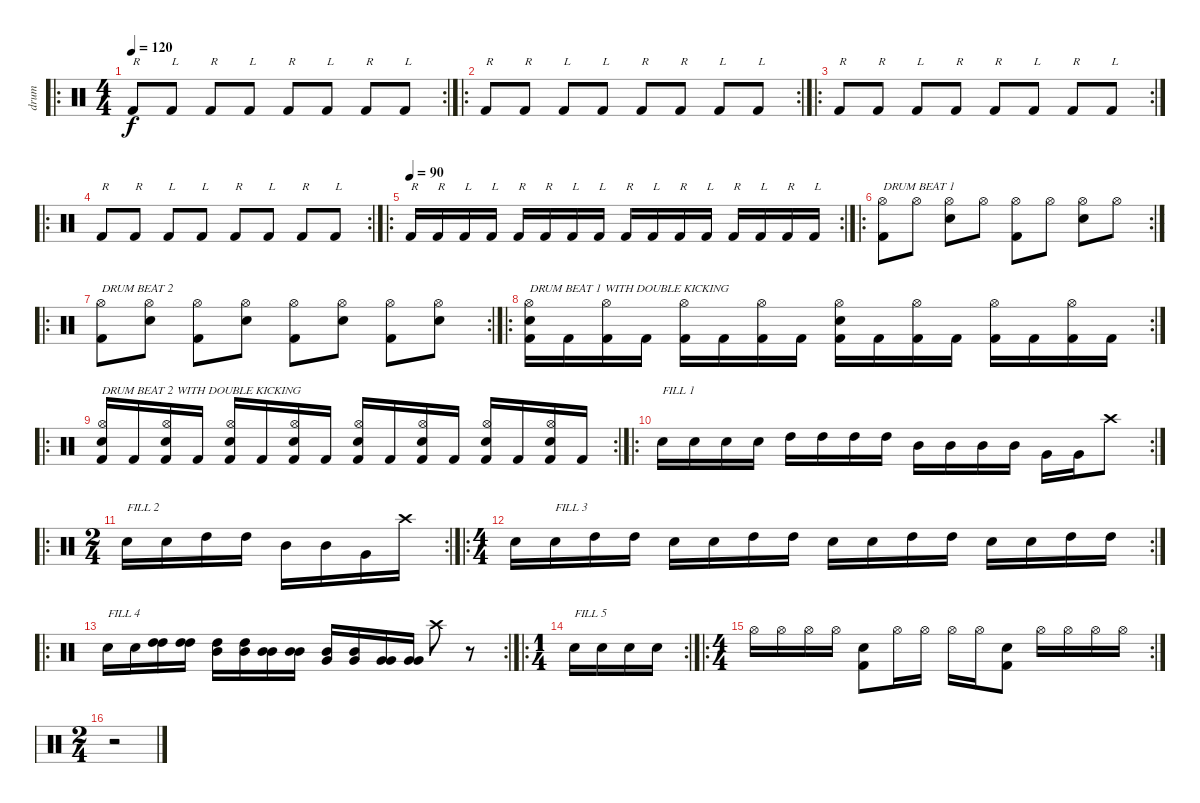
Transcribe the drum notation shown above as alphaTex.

\track ("drum" "drum") {instrument percussion}
\staff {score}
\articulation defaults
\ro
\rc 2
\ts (4 4)
\tempo 120
\clef neutral
\ks c "Kick (hit) 2".8{txt "R" dy f} "Kick (hit) 2".8{txt "L"} "Kick (hit) 2".8{txt "R"} "Kick (hit) 2".8{txt "L"} "Kick (hit) 2".8{txt "R"} "Kick (hit) 2".8{txt "L"} "Kick (hit) 2".8{txt "R"} "Kick (hit) 2".8{txt "L"}
|
\ro
\rc 2 "Kick (hit) 2".8{txt "R"} "Kick (hit) 2".8{txt "R"} "Kick (hit) 2".8{txt "L"} "Kick (hit) 2".8{txt "L"} "Kick (hit) 2".8{txt "R"} "Kick (hit) 2".8{txt "R"} "Kick (hit) 2".8{txt "L"} "Kick (hit) 2".8{txt "L"}
|
\ro
\rc 2 "Kick (hit) 2".8{txt "R"} "Kick (hit) 2".8{txt "R"} "Kick (hit) 2".8{txt "L"} "Kick (hit) 2".8{txt "R"} "Kick (hit) 2".8{txt "R"} "Kick (hit) 2".8{txt "L"} "Kick (hit) 2".8{txt "R"} "Kick (hit) 2".8{txt "L"}
|
\ro
\rc 2 "Kick (hit) 2".8{txt "R"} "Kick (hit) 2".8{txt "R"} "Kick (hit) 2".8{txt "L"} "Kick (hit) 2".8{txt "L"} "Kick (hit) 2".8{txt "R"} "Kick (hit) 2".8{txt "L"} "Kick (hit) 2".8{txt "R"} "Kick (hit) 2".8{txt "L"}
|
\ro
\rc 2
\tempo (90)
"Kick (hit) 2".16{txt "R"} "Kick (hit) 2".16{txt "R"} "Kick (hit) 2".16{txt "L"} "Kick (hit) 2".16{txt "L"} "Kick (hit) 2".16{txt "R"} "Kick (hit) 2".16{txt "R"} "Kick (hit) 2".16{txt "L"} "Kick (hit) 2".16{txt "L"} "Kick (hit) 2".16{txt "R"} "Kick (hit) 2".16{txt "L"} "Kick (hit) 2".16{txt "R"} "Kick (hit) 2".16{txt "L"} "Kick (hit) 2".16{txt "R"} "Kick (hit) 2".16{txt "L"} "Kick (hit) 2".16{txt "R"} "Kick (hit) 2".16{txt "L"} |
\ro
\rc 2
("Hi-Hat (open)" "Kick (hit) 2").8{txt "DRUM BEAT 1"} "Hi-Hat (open)".8 ("Hi-Hat (open)" "Electric Snare (hit)").8 "Hi-Hat (open)".8 ("Hi-Hat (open)" "Kick (hit) 2").8 "Hi-Hat (open)".8 ("Hi-Hat (open)" "Electric Snare (hit)").8 "Hi-Hat (open)".8 |
\ro
\rc 2
("Hi-Hat (open)" "Kick (hit) 2").8{txt "DRUM BEAT 2"} ("Hi-Hat (open)" "Electric Snare (hit)").8 ("Hi-Hat (open)" "Kick (hit) 2").8 ("Hi-Hat (open)" "Electric Snare (hit)").8 ("Hi-Hat (open)" "Kick (hit) 2").8 ("Hi-Hat (open)" "Electric Snare (hit)").8 ("Hi-Hat (open)" "Kick (hit) 2").8 ("Hi-Hat (open)" "Electric Snare (hit)").8 |
\ro
\rc 2
("Hi-Hat (open)" "Electric Snare (hit)" "Kick (hit) 2").16{txt "DRUM BEAT 1 WITH DOUBLE KICKING"} "Kick (hit) 2".16 ("Hi-Hat (open)" "Kick (hit) 2").16 "Kick (hit) 2".16 ("Hi-Hat (open)" "Kick (hit) 2").16 "Kick (hit) 2".16 ("Hi-Hat (open)" "Kick (hit) 2").16 "Kick (hit) 2".16 ("Hi-Hat (open)" "Electric Snare (hit)" "Kick (hit) 2").16 "Kick (hit) 2".16 ("Hi-Hat (open)" "Kick (hit) 2").16 "Kick (hit) 2".16 ("Hi-Hat (open)" "Kick (hit) 2").16 "Kick (hit) 2".16 ("Hi-Hat (open)" "Kick (hit) 2").16 "Kick (hit) 2".16 |
\ro
\rc 2
("Hi-Hat (open)" "Electric Snare (hit)" "Kick (hit) 2").16{txt "DRUM BEAT 2 WITH DOUBLE KICKING"} "Kick (hit) 2".16 ("Hi-Hat (open)" "Electric Snare (hit)" "Kick (hit) 2").16 "Kick (hit) 2".16 ("Hi-Hat (open)" "Electric Snare (hit)" "Kick (hit) 2").16 "Kick (hit) 2".16 ("Hi-Hat (open)" "Electric Snare (hit)" "Kick (hit) 2").16 "Kick (hit) 2".16 ("Hi-Hat (open)" "Electric Snare (hit)" "Kick (hit) 2").16 "Kick (hit) 2".16 ("Hi-Hat (open)" "Electric Snare (hit)" "Kick (hit) 2").16 "Kick (hit) 2".16 ("Hi-Hat (open)" "Electric Snare (hit)" "Kick (hit) 2").16 "Kick (hit) 2".16 ("Hi-Hat (open)" "Electric Snare (hit)" "Kick (hit) 2").16 "Kick (hit) 2".16 |
\ro
\rc 2 "Electric Snare (hit)".16{txt "FILL 1"} "Electric Snare (hit)".16 "Electric Snare (hit)".16 "Electric Snare (hit)".16 "High Tom (hit)".16 "High Tom (hit)".16 "High Tom (hit)".16 "High Tom (hit)".16 "Mid Tom (hit)".16 "Mid Tom (hit)".16 "Mid Tom (hit)".16 "Mid Tom (hit)".16 "Very Low Tom (hit)".16 "Very Low Tom (hit)".16 "Crash high (hit)".8
|
\ro
\rc 2
\ts (2 4)
"Electric Snare (hit)".16{txt "FILL 2"} "Electric Snare (hit)".16 "High Tom (hit)".16 "High Tom (hit)".16 "Mid Tom (hit)".16 "Mid Tom (hit)".16 "Very Low Tom (hit)".16 "Crash high (hit)".16 |
\ro
\rc 2
\ts (4 4)
"Electric Snare (hit)".16 "Electric Snare (hit)".16{txt "FILL 3"} "High Tom (hit)".16 "High Tom (hit)".16 "Electric Snare (hit)".16 "Electric Snare (hit)".16 "High Tom (hit)".16 "High Tom (hit)".16 "Electric Snare (hit)".16 "Electric Snare (hit)".16 "High Tom (hit)".16 "High Tom (hit)".16 "Electric Snare (hit)".16 "Electric Snare (hit)".16 "High Tom (hit)".16 "High Tom (hit)".16 |
\ro
\rc 2 "Electric Snare (hit)".16{txt "FILL 4"} "Electric Snare (hit)".16
("High Tom (hit)" "High Tom (hit)").16 ("High Tom (hit)" "High Tom (hit)").16 ("Mid Tom (hit)" "High Tom (hit)").16 ("Mid Tom (hit)" "High Tom (hit)").16 ("Mid Tom (hit)" "Mid Tom (hit)").16 ("Mid Tom (hit)" "Mid Tom (hit)").16 ("Very Low Tom (hit)" "Mid Tom (hit)").16 ("Very Low Tom (hit)" "Mid Tom (hit)").16 ("Very Low Tom (hit)" "Very Low Tom (hit)").16 ("Very Low Tom (hit)" "Very Low Tom (hit)").16 "Crash high (hit)".8 r.8 |
\ro
\rc 2
\ts (1 4)
"Electric Snare (hit)".16{txt "FILL 5"} "Electric Snare (hit)".16 "Electric Snare (hit)".16 "Electric Snare (hit)".16 |
\ro
\rc 2
\ts (4 4)
"Hi-Hat (open)".16 "Hi-Hat (open)".16 "Hi-Hat (open)".16 "Hi-Hat (open)".16 ("Kick (hit) 2" "Electric Snare (hit)").8 "Hi-Hat (open)".16 "Hi-Hat (open)".16 "Hi-Hat (open)".16 "Hi-Hat (open)".16 ("Kick (hit) 2" "Electric Snare (hit)").8 "Hi-Hat (open)".16 "Hi-Hat (open)".16 "Hi-Hat (open)".16 "Hi-Hat (open)".16 |
\ts (2 4)
r.2
